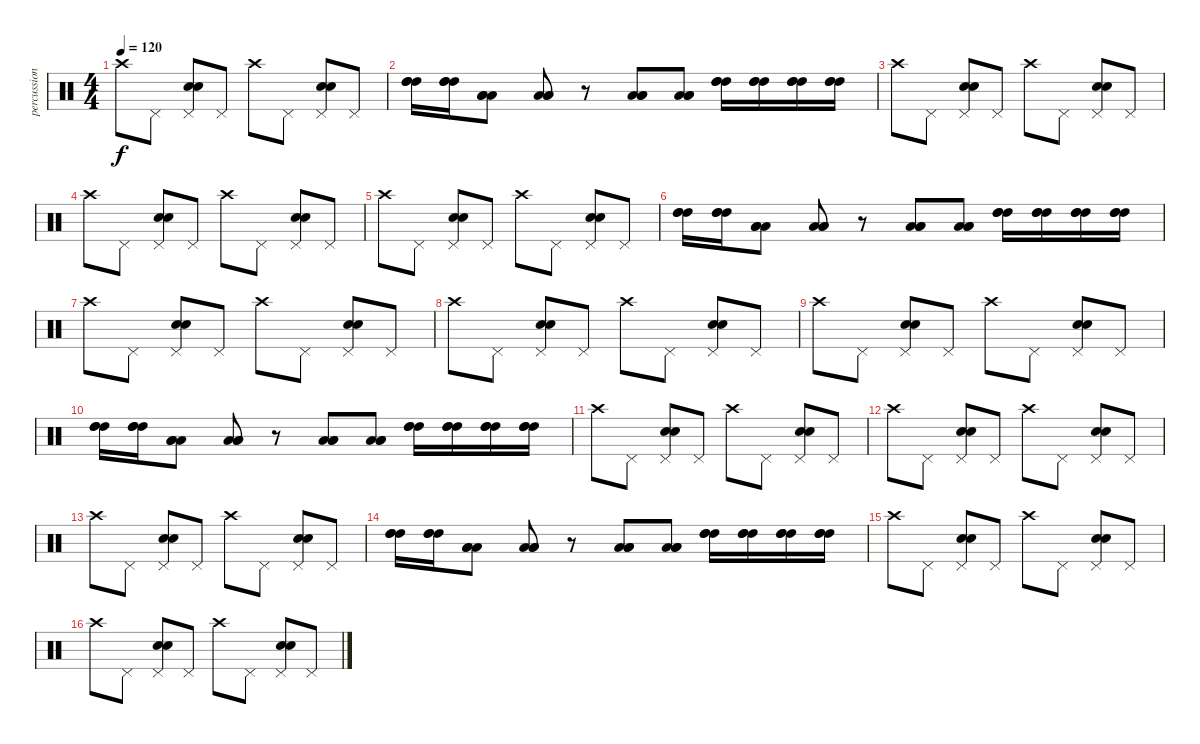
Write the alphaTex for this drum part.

\track ("percussion" "percussion") {instrument percussion}
\staff {score}
\articulation defaults
\ts (4 4)
\tempo 120
\clef neutral
\ks c "Crash high (hit)".8{dy f} "Pedal Hi-Hat (hit)".8
("Pedal Hi-Hat (hit)" "Snare (hit) 2" "Snare (hit) 2").8 "Pedal Hi-Hat (hit)".8 "Crash high (hit)".8 "Pedal Hi-Hat (hit)".8 ("Pedal Hi-Hat (hit)" "Snare (hit) 2" "Snare (hit) 2").8 "Pedal Hi-Hat (hit)".8 |
("High Tom (hit)" "High Tom (hit)" "High Tom (hit)").16 ("High Tom (hit)" "High Tom (hit)" "High Tom (hit)").16 ("Low Tom (hit)" "Low Tom (hit)" "Low Tom (hit)").8 ("Low Tom (hit)" "Low Tom (hit)" "Low Tom (hit)").8 r.8 ("Low Tom (hit)" "Low Tom (hit)" "Low Tom (hit)").8 ("Low Tom (hit)" "Low Tom (hit)" "Low Tom (hit)").8 ("High Tom (hit)" "High Tom (hit)" "High Tom (hit)").16 ("High Tom (hit)" "High Tom (hit)" "High Tom (hit)").16 ("High Tom (hit)" "High Tom (hit)" "High Tom (hit)").16 ("High Tom (hit)" "High Tom (hit)" "High Tom (hit)").16 |
"Crash high (hit)".8 "Pedal Hi-Hat (hit)".8 ("Pedal Hi-Hat (hit)" "Snare (hit) 2" "Snare (hit) 2").8 "Pedal Hi-Hat (hit)".8 "Crash high (hit)".8 "Pedal Hi-Hat (hit)".8 ("Pedal Hi-Hat (hit)" "Snare (hit) 2" "Snare (hit) 2").8 "Pedal Hi-Hat (hit)".8 |
"Crash high (hit)".8 "Pedal Hi-Hat (hit)".8 ("Pedal Hi-Hat (hit)" "Snare (hit) 2" "Snare (hit) 2").8 "Pedal Hi-Hat (hit)".8 "Crash high (hit)".8 "Pedal Hi-Hat (hit)".8 ("Pedal Hi-Hat (hit)" "Snare (hit) 2" "Snare (hit) 2").8 "Pedal Hi-Hat (hit)".8 |
"Crash high (hit)".8 "Pedal Hi-Hat (hit)".8 ("Pedal Hi-Hat (hit)" "Snare (hit) 2" "Snare (hit) 2").8 "Pedal Hi-Hat (hit)".8 "Crash high (hit)".8 "Pedal Hi-Hat (hit)".8 ("Pedal Hi-Hat (hit)" "Snare (hit) 2" "Snare (hit) 2").8 "Pedal Hi-Hat (hit)".8 |
("High Tom (hit)" "High Tom (hit)" "High Tom (hit)").16 ("High Tom (hit)" "High Tom (hit)" "High Tom (hit)").16 ("Low Tom (hit)" "Low Tom (hit)" "Low Tom (hit)").8 ("Low Tom (hit)" "Low Tom (hit)" "Low Tom (hit)").8 r.8 ("Low Tom (hit)" "Low Tom (hit)" "Low Tom (hit)").8 ("Low Tom (hit)" "Low Tom (hit)" "Low Tom (hit)").8 ("High Tom (hit)" "High Tom (hit)" "High Tom (hit)").16 ("High Tom (hit)" "High Tom (hit)" "High Tom (hit)").16 ("High Tom (hit)" "High Tom (hit)" "High Tom (hit)").16 ("High Tom (hit)" "High Tom (hit)" "High Tom (hit)").16 |
"Crash high (hit)".8 "Pedal Hi-Hat (hit)".8 ("Pedal Hi-Hat (hit)" "Snare (hit) 2" "Snare (hit) 2").8 "Pedal Hi-Hat (hit)".8 "Crash high (hit)".8 "Pedal Hi-Hat (hit)".8 ("Pedal Hi-Hat (hit)" "Snare (hit) 2" "Snare (hit) 2").8 "Pedal Hi-Hat (hit)".8 |
"Crash high (hit)".8 "Pedal Hi-Hat (hit)".8 ("Pedal Hi-Hat (hit)" "Snare (hit) 2" "Snare (hit) 2").8 "Pedal Hi-Hat (hit)".8 "Crash high (hit)".8 "Pedal Hi-Hat (hit)".8 ("Pedal Hi-Hat (hit)" "Snare (hit) 2" "Snare (hit) 2").8 "Pedal Hi-Hat (hit)".8 |
"Crash high (hit)".8 "Pedal Hi-Hat (hit)".8 ("Pedal Hi-Hat (hit)" "Snare (hit) 2" "Snare (hit) 2").8 "Pedal Hi-Hat (hit)".8 "Crash high (hit)".8 "Pedal Hi-Hat (hit)".8 ("Pedal Hi-Hat (hit)" "Snare (hit) 2" "Snare (hit) 2").8 "Pedal Hi-Hat (hit)".8 |
("High Tom (hit)" "High Tom (hit)" "High Tom (hit)").16 ("High Tom (hit)" "High Tom (hit)" "High Tom (hit)").16 ("Low Tom (hit)" "Low Tom (hit)" "Low Tom (hit)").8 ("Low Tom (hit)" "Low Tom (hit)" "Low Tom (hit)").8 r.8 ("Low Tom (hit)" "Low Tom (hit)" "Low Tom (hit)").8 ("Low Tom (hit)" "Low Tom (hit)" "Low Tom (hit)").8 ("High Tom (hit)" "High Tom (hit)" "High Tom (hit)").16 ("High Tom (hit)" "High Tom (hit)" "High Tom (hit)").16 ("High Tom (hit)" "High Tom (hit)" "High Tom (hit)").16 ("High Tom (hit)" "High Tom (hit)" "High Tom (hit)").16 |
"Crash high (hit)".8 "Pedal Hi-Hat (hit)".8 ("Pedal Hi-Hat (hit)" "Snare (hit) 2" "Snare (hit) 2").8 "Pedal Hi-Hat (hit)".8 "Crash high (hit)".8 "Pedal Hi-Hat (hit)".8 ("Pedal Hi-Hat (hit)" "Snare (hit) 2" "Snare (hit) 2").8 "Pedal Hi-Hat (hit)".8 |
"Crash high (hit)".8 "Pedal Hi-Hat (hit)".8 ("Pedal Hi-Hat (hit)" "Snare (hit) 2" "Snare (hit) 2").8 "Pedal Hi-Hat (hit)".8 "Crash high (hit)".8 "Pedal Hi-Hat (hit)".8 ("Pedal Hi-Hat (hit)" "Snare (hit) 2" "Snare (hit) 2").8 "Pedal Hi-Hat (hit)".8 |
"Crash high (hit)".8 "Pedal Hi-Hat (hit)".8 ("Pedal Hi-Hat (hit)" "Snare (hit) 2" "Snare (hit) 2").8 "Pedal Hi-Hat (hit)".8 "Crash high (hit)".8 "Pedal Hi-Hat (hit)".8 ("Pedal Hi-Hat (hit)" "Snare (hit) 2" "Snare (hit) 2").8 "Pedal Hi-Hat (hit)".8 |
("High Tom (hit)" "High Tom (hit)" "High Tom (hit)").16 ("High Tom (hit)" "High Tom (hit)" "High Tom (hit)").16 ("Low Tom (hit)" "Low Tom (hit)" "Low Tom (hit)").8 ("Low Tom (hit)" "Low Tom (hit)" "Low Tom (hit)").8 r.8 ("Low Tom (hit)" "Low Tom (hit)" "Low Tom (hit)").8 ("Low Tom (hit)" "Low Tom (hit)" "Low Tom (hit)").8 ("High Tom (hit)" "High Tom (hit)" "High Tom (hit)").16 ("High Tom (hit)" "High Tom (hit)" "High Tom (hit)").16 ("High Tom (hit)" "High Tom (hit)" "High Tom (hit)").16 ("High Tom (hit)" "High Tom (hit)" "High Tom (hit)").16 |
"Crash high (hit)".8 "Pedal Hi-Hat (hit)".8 ("Pedal Hi-Hat (hit)" "Snare (hit) 2" "Snare (hit) 2").8 "Pedal Hi-Hat (hit)".8 "Crash high (hit)".8 "Pedal Hi-Hat (hit)".8 ("Pedal Hi-Hat (hit)" "Snare (hit) 2" "Snare (hit) 2").8 "Pedal Hi-Hat (hit)".8 |
"Crash high (hit)".8 "Pedal Hi-Hat (hit)".8 ("Pedal Hi-Hat (hit)" "Snare (hit) 2" "Snare (hit) 2").8 "Pedal Hi-Hat (hit)".8 "Crash high (hit)".8 "Pedal Hi-Hat (hit)".8 ("Pedal Hi-Hat (hit)" "Snare (hit) 2" "Snare (hit) 2").8 "Pedal Hi-Hat (hit)".8
